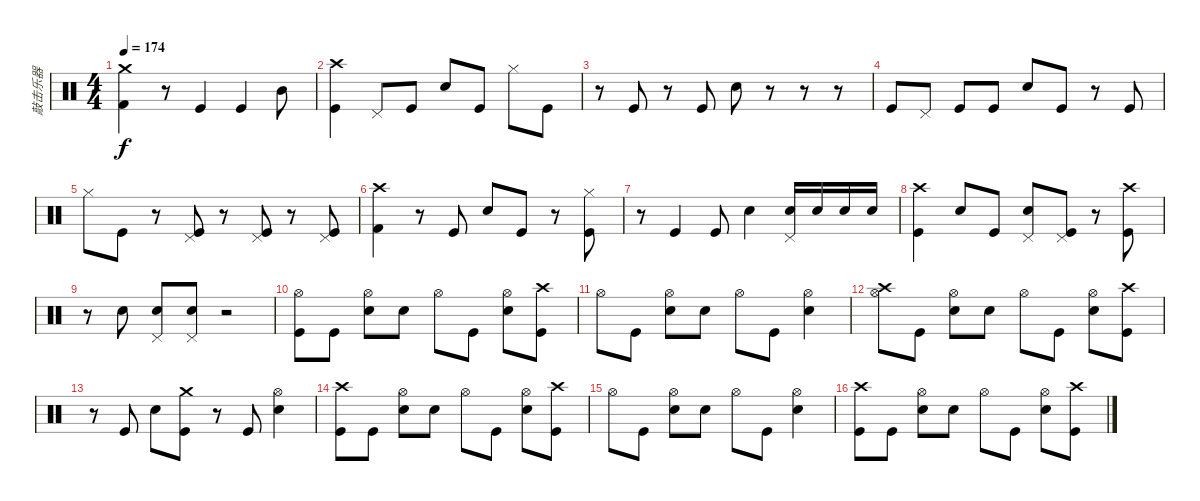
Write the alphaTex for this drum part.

\track ("敲击乐器" "敲击乐器") {instrument percussion}
\staff {score}
\articulation defaults
\ts (4 4)
\tempo 174
\clef neutral
\ks c
("Kick (hit) 2" "Crash medium (hit)").4{dy f} r.8 "Kick (hit)".4 "Kick (hit)".4 "Mid Tom (hit)".8 |
("Crash high (hit)" "Kick (hit)").4 "Pedal Hi-Hat (hit)".8 "Kick (hit)".8 "Hand Clap (hit)".8 "Kick (hit)".8 "Hi-Hat (closed)".8 "Kick (hit)".8 |
r.8 "Kick (hit)".8 r.8 "Kick (hit)".8 "Hand Clap (hit)".8 r.8 r.8 r.8 |
"Kick (hit)".8 "Pedal Hi-Hat (hit)".8 "Kick (hit)".8 "Kick (hit)".8 "Hand Clap (hit)".8 "Kick (hit)".8 r.8 "Kick (hit)".8 |
"Hi-Hat (closed)".8 "Kick (hit)".8 r.8 ("Kick (hit)" "Pedal Hi-Hat (hit)").8 r.8 ("Pedal Hi-Hat (hit)" "Kick (hit)").8 r.8 ("Kick (hit)" "Pedal Hi-Hat (hit)").8 |
("Crash high (hit)" "Kick (hit) 2").4 r.8 "Kick (hit)".8 "Hand Clap (hit)".8 "Kick (hit)".8 r.8 ("Hi-Hat (closed)" "Kick (hit)").8 |
r.8 "Kick (hit)".4 "Kick (hit)".8 "Hand Clap (hit)".4 ("Electric Snare (hit)" "Pedal Hi-Hat (hit)").16 "Electric Snare (hit)".16 "Electric Snare (hit)".16 "Electric Snare (hit)".16 |
("Kick (hit)" "Crash high (hit)").4 "Electric Snare (hit)".8 "Kick (hit)".8 ("Electric Snare (hit)" "Pedal Hi-Hat (hit)").8 ("Kick (hit)" "Pedal Hi-Hat (hit)").8 r.8 ("Crash high (hit)" "Kick (hit)").8 |
r.8 "Electric Snare (hit)".8 ("Electric Snare (hit)" "Pedal Hi-Hat (hit)").8 ("Electric Snare (hit)" "Pedal Hi-Hat (hit)").8 r.2 |
("Kick (hit)" "Hi-Hat (open)").8 "Kick (hit)".8 ("Hi-Hat (open)" "Snare (hit) 2").8 "Snare (hit) 2".8 "Hi-Hat (open)".8 "Kick (hit)".8 ("Snare (hit) 2" "Hi-Hat (open)").8 ("Kick (hit)" "Crash high (hit)").8 |
"Hi-Hat (open)".8 "Kick (hit)".8 ("Snare (hit) 2" "Hi-Hat (open)").8 "Snare (hit) 2".8 "Hi-Hat (open)".8 "Kick (hit)".8 ("Snare (hit) 2" "Hi-Hat (open)").4 |
("Hi-Hat (open)" "Crash high (hit)").8 "Kick (hit)".8 ("Hi-Hat (open)" "Snare (hit) 2").8 "Snare (hit) 2".8 "Hi-Hat (open)".8 "Kick (hit)".8 ("Snare (hit) 2" "Hi-Hat (open)").8 ("Kick (hit)" "Crash high (hit)").8 |
r.8 "Kick (hit)".8 "Snare (hit) 2".8 ("Crash medium (hit)" "Kick (hit)").8 r.8 "Kick (hit)".8 ("Snare (hit) 2" "Hi-Hat (open)").4 |
("Kick (hit)" "Crash high (hit)").8 "Kick (hit)".8 ("Hi-Hat (open)" "Snare (hit) 2").8 "Snare (hit) 2".8 "Hi-Hat (open)".8 "Kick (hit)".8 ("Snare (hit) 2" "Hi-Hat (open)").8 ("Kick (hit)" "Crash high (hit)").8 |
"Hi-Hat (open)".8 "Kick (hit)".8 ("Snare (hit) 2" "Hi-Hat (open)").8 "Snare (hit) 2".8 "Hi-Hat (open)".8 "Kick (hit)".8 ("Snare (hit) 2" "Hi-Hat (open)").4 |
("Kick (hit)" "Crash high (hit)").8 "Kick (hit)".8 ("Hi-Hat (open)" "Snare (hit) 2").8 "Snare (hit) 2".8 "Hi-Hat (open)".8 "Kick (hit)".8 ("Snare (hit) 2" "Hi-Hat (open)").8 ("Kick (hit)" "Crash high (hit)").8
